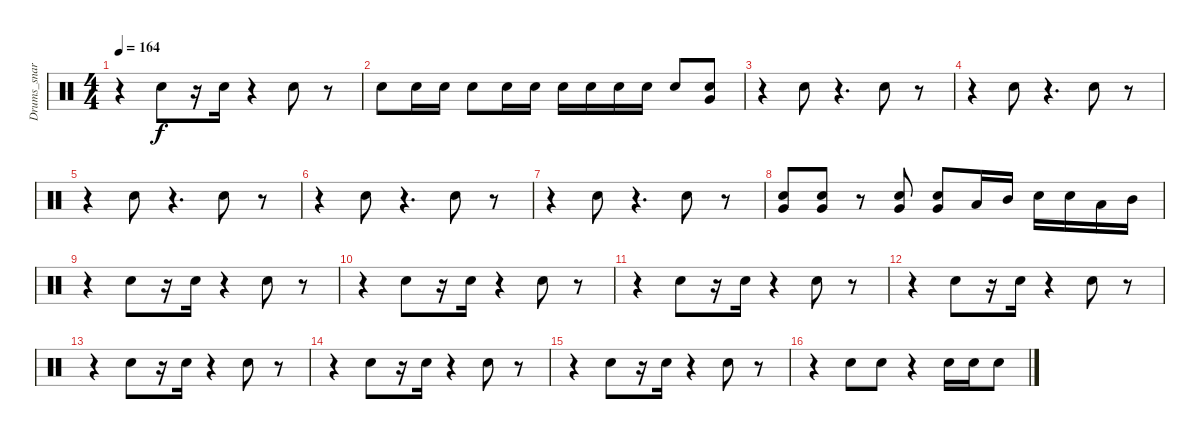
\track ("Drums_snare&tom" "Drums_snar") {instrument percussion}
\staff {score}
\articulation defaults
\ts (4 4)
\tempo 164
\clef neutral
\ks c
r.4{dy f} "Snare (hit) 2".8 r.16 "Snare (hit) 2".16 r.4 "Snare (hit) 2".8 r.8 |
"Snare (hit) 2".8 "Snare (hit) 2".16 "Snare (hit) 2".16 "Snare (hit) 2".8 "Snare (hit) 2".16 "Snare (hit) 2".16 "Snare (hit) 2".16 "Snare (hit) 2".16 "Snare (hit) 2".16 "Snare (hit) 2".16 "Snare (hit) 2".8 ("Snare (hit) 2" "Very Low Tom (hit)").8 |
r.4 "Snare (hit) 2".8 r.4{d} "Snare (hit) 2".8 r.8 |
r.4 "Snare (hit) 2".8 r.4{d} "Snare (hit) 2".8 r.8 |
r.4 "Snare (hit) 2".8 r.4{d} "Snare (hit) 2".8 r.8 |
r.4 "Snare (hit) 2".8 r.4{d} "Snare (hit) 2".8 r.8 |
r.4 "Snare (hit) 2".8 r.4{d} "Snare (hit) 2".8 r.8 |
("Snare (hit) 2" "Very Low Tom (hit)").8 ("Snare (hit) 2" "Very Low Tom (hit)").8 r.8 ("Snare (hit) 2" "Very Low Tom (hit)").8 ("Snare (hit) 2" "Very Low Tom (hit)").8 "Low Tom (hit)".16 "Mid Tom (hit)".16 "Snare (hit) 2".16 "Snare (hit) 2".16 "Low Tom (hit)".16 "Mid Tom (hit)".16 |
r.4 "Snare (hit) 2".8 r.16 "Snare (hit) 2".16 r.4 "Snare (hit) 2".8 r.8 |
r.4 "Snare (hit) 2".8 r.16 "Snare (hit) 2".16 r.4 "Snare (hit) 2".8 r.8 |
r.4 "Snare (hit) 2".8 r.16 "Snare (hit) 2".16 r.4 "Snare (hit) 2".8 r.8 |
r.4 "Snare (hit) 2".8 r.16 "Snare (hit) 2".16 r.4 "Snare (hit) 2".8 r.8 |
r.4 "Snare (hit) 2".8 r.16 "Snare (hit) 2".16 r.4 "Snare (hit) 2".8 r.8 |
r.4 "Snare (hit) 2".8 r.16 "Snare (hit) 2".16 r.4 "Snare (hit) 2".8 r.8 |
r.4 "Snare (hit) 2".8 r.16 "Snare (hit) 2".16 r.4 "Snare (hit) 2".8 r.8 |
r.4 "Snare (hit) 2".8 "Snare (hit) 2".8 r.4 "Snare (hit) 2".16 "Snare (hit) 2".16 "Snare (hit) 2".8
